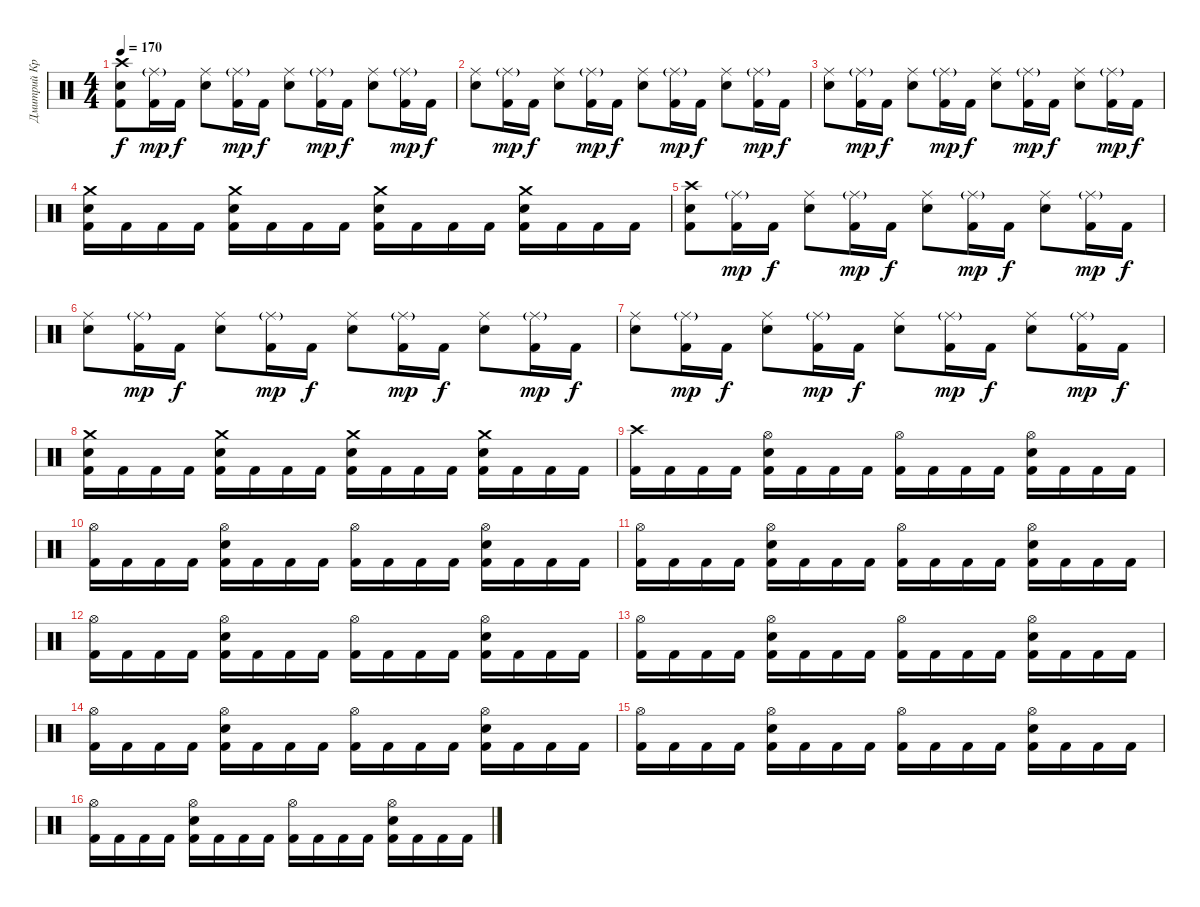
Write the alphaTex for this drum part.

\track ("Дмитрий Кривенков" "Дмитрий Кр") {instrument percussion}
\staff {score}
\articulation defaults
\ts (4 4)
\tempo 170
\clef neutral
\ks c
("Crash high (hit)" "Electric Snare (hit)" "Kick (hit) 2").8{dy f} ("Ride (middle)"{g} "Kick (hit) 2").16{dy mp} "Kick (hit) 2".16{dy f} ("Ride (middle)" "Electric Snare (hit)").8 ("Ride (middle)"{g} "Kick (hit) 2").16{dy mp} "Kick (hit) 2".16{dy f} ("Ride (middle)" "Electric Snare (hit)").8 ("Ride (middle)"{g} "Kick (hit) 2").16{dy mp} "Kick (hit) 2".16{dy f} ("Ride (middle)" "Electric Snare (hit)").8 ("Ride (middle)"{g} "Kick (hit) 2").16{dy mp} "Kick (hit) 2".16{dy f} |
("Ride (middle)" "Electric Snare (hit)").8 ("Ride (middle)"{g} "Kick (hit) 2").16{dy mp} "Kick (hit) 2".16{dy f} ("Ride (middle)" "Electric Snare (hit)").8 ("Ride (middle)"{g} "Kick (hit) 2").16{dy mp} "Kick (hit) 2".16{dy f} ("Ride (middle)" "Electric Snare (hit)").8 ("Ride (middle)"{g} "Kick (hit) 2").16{dy mp} "Kick (hit) 2".16{dy f} ("Ride (middle)" "Electric Snare (hit)").8 ("Ride (middle)"{g} "Kick (hit) 2").16{dy mp} "Kick (hit) 2".16{dy f} |
("Ride (middle)" "Electric Snare (hit)").8 ("Ride (middle)"{g} "Kick (hit) 2").16{dy mp} "Kick (hit) 2".16{dy f} ("Ride (middle)" "Electric Snare (hit)").8 ("Ride (middle)"{g} "Kick (hit) 2").16{dy mp} "Kick (hit) 2".16{dy f} ("Ride (middle)" "Electric Snare (hit)").8 ("Ride (middle)"{g} "Kick (hit) 2").16{dy mp} "Kick (hit) 2".16{dy f} ("Ride (middle)" "Electric Snare (hit)").8 ("Ride (middle)"{g} "Kick (hit) 2").16{dy mp} "Kick (hit) 2".16{dy f} |
("Crash medium (hit)" "Electric Snare (hit)" "Kick (hit) 2").16 "Kick (hit) 2".16 "Kick (hit) 2".16 "Kick (hit) 2".16 ("Crash medium (hit)" "Electric Snare (hit)" "Kick (hit) 2").16 "Kick (hit) 2".16 "Kick (hit) 2".16 "Kick (hit) 2".16 ("Crash medium (hit)" "Electric Snare (hit)" "Kick (hit) 2").16 "Kick (hit) 2".16 "Kick (hit) 2".16 "Kick (hit) 2".16 ("Crash medium (hit)" "Electric Snare (hit)" "Kick (hit) 2").16 "Kick (hit) 2".16 "Kick (hit) 2".16 "Kick (hit) 2".16 |
("Crash high (hit)" "Electric Snare (hit)" "Kick (hit) 2").8 ("Ride (middle)"{g} "Kick (hit) 2").16{dy mp} "Kick (hit) 2".16{dy f} ("Ride (middle)" "Electric Snare (hit)").8 ("Ride (middle)"{g} "Kick (hit) 2").16{dy mp} "Kick (hit) 2".16{dy f} ("Ride (middle)" "Electric Snare (hit)").8 ("Ride (middle)"{g} "Kick (hit) 2").16{dy mp} "Kick (hit) 2".16{dy f} ("Ride (middle)" "Electric Snare (hit)").8 ("Ride (middle)"{g} "Kick (hit) 2").16{dy mp} "Kick (hit) 2".16{dy f} |
("Ride (middle)" "Electric Snare (hit)").8 ("Ride (middle)"{g} "Kick (hit) 2").16{dy mp} "Kick (hit) 2".16{dy f} ("Ride (middle)" "Electric Snare (hit)").8 ("Ride (middle)"{g} "Kick (hit) 2").16{dy mp} "Kick (hit) 2".16{dy f} ("Ride (middle)" "Electric Snare (hit)").8 ("Ride (middle)"{g} "Kick (hit) 2").16{dy mp} "Kick (hit) 2".16{dy f} ("Ride (middle)" "Electric Snare (hit)").8 ("Ride (middle)"{g} "Kick (hit) 2").16{dy mp} "Kick (hit) 2".16{dy f} |
("Ride (middle)" "Electric Snare (hit)").8 ("Ride (middle)"{g} "Kick (hit) 2").16{dy mp} "Kick (hit) 2".16{dy f} ("Ride (middle)" "Electric Snare (hit)").8 ("Ride (middle)"{g} "Kick (hit) 2").16{dy mp} "Kick (hit) 2".16{dy f} ("Ride (middle)" "Electric Snare (hit)").8 ("Ride (middle)"{g} "Kick (hit) 2").16{dy mp} "Kick (hit) 2".16{dy f} ("Ride (middle)" "Electric Snare (hit)").8 ("Ride (middle)"{g} "Kick (hit) 2").16{dy mp} "Kick (hit) 2".16{dy f} |
("Crash medium (hit)" "Electric Snare (hit)" "Kick (hit) 2").16 "Kick (hit) 2".16 "Kick (hit) 2".16 "Kick (hit) 2".16 ("Crash medium (hit)" "Electric Snare (hit)" "Kick (hit) 2").16 "Kick (hit) 2".16 "Kick (hit) 2".16 "Kick (hit) 2".16 ("Crash medium (hit)" "Electric Snare (hit)" "Kick (hit) 2").16 "Kick (hit) 2".16 "Kick (hit) 2".16 "Kick (hit) 2".16 ("Crash medium (hit)" "Electric Snare (hit)" "Kick (hit) 2").16 "Kick (hit) 2".16 "Kick (hit) 2".16 "Kick (hit) 2".16 |
("Crash high (hit)" "Kick (hit) 2").16 "Kick (hit) 2".16 "Kick (hit) 2".16 "Kick (hit) 2".16 ("Hi-Hat (open)" "Electric Snare (hit)" "Kick (hit) 2").16 "Kick (hit) 2".16 "Kick (hit) 2".16 "Kick (hit) 2".16 ("Hi-Hat (open)" "Kick (hit) 2").16 "Kick (hit) 2".16 "Kick (hit) 2".16 "Kick (hit) 2".16 ("Hi-Hat (open)" "Electric Snare (hit)" "Kick (hit) 2").16 "Kick (hit) 2".16 "Kick (hit) 2".16 "Kick (hit) 2".16 |
("Hi-Hat (open)" "Kick (hit) 2").16 "Kick (hit) 2".16 "Kick (hit) 2".16 "Kick (hit) 2".16 ("Hi-Hat (open)" "Electric Snare (hit)" "Kick (hit) 2").16 "Kick (hit) 2".16 "Kick (hit) 2".16 "Kick (hit) 2".16 ("Hi-Hat (open)" "Kick (hit) 2").16 "Kick (hit) 2".16 "Kick (hit) 2".16 "Kick (hit) 2".16 ("Hi-Hat (open)" "Electric Snare (hit)" "Kick (hit) 2").16 "Kick (hit) 2".16 "Kick (hit) 2".16 "Kick (hit) 2".16 |
("Hi-Hat (open)" "Kick (hit) 2").16 "Kick (hit) 2".16 "Kick (hit) 2".16 "Kick (hit) 2".16 ("Hi-Hat (open)" "Electric Snare (hit)" "Kick (hit) 2").16 "Kick (hit) 2".16 "Kick (hit) 2".16 "Kick (hit) 2".16 ("Hi-Hat (open)" "Kick (hit) 2").16 "Kick (hit) 2".16 "Kick (hit) 2".16 "Kick (hit) 2".16 ("Hi-Hat (open)" "Electric Snare (hit)" "Kick (hit) 2").16 "Kick (hit) 2".16 "Kick (hit) 2".16 "Kick (hit) 2".16 |
("Hi-Hat (open)" "Kick (hit) 2").16 "Kick (hit) 2".16 "Kick (hit) 2".16 "Kick (hit) 2".16 ("Hi-Hat (open)" "Electric Snare (hit)" "Kick (hit) 2").16 "Kick (hit) 2".16 "Kick (hit) 2".16 "Kick (hit) 2".16 ("Hi-Hat (open)" "Kick (hit) 2").16 "Kick (hit) 2".16 "Kick (hit) 2".16 "Kick (hit) 2".16 ("Hi-Hat (open)" "Electric Snare (hit)" "Kick (hit) 2").16 "Kick (hit) 2".16 "Kick (hit) 2".16 "Kick (hit) 2".16 |
("Hi-Hat (open)" "Kick (hit) 2").16 "Kick (hit) 2".16 "Kick (hit) 2".16 "Kick (hit) 2".16 ("Hi-Hat (open)" "Electric Snare (hit)" "Kick (hit) 2").16 "Kick (hit) 2".16 "Kick (hit) 2".16 "Kick (hit) 2".16 ("Hi-Hat (open)" "Kick (hit) 2").16 "Kick (hit) 2".16 "Kick (hit) 2".16 "Kick (hit) 2".16 ("Hi-Hat (open)" "Electric Snare (hit)" "Kick (hit) 2").16 "Kick (hit) 2".16 "Kick (hit) 2".16 "Kick (hit) 2".16 |
("Hi-Hat (open)" "Kick (hit) 2").16 "Kick (hit) 2".16 "Kick (hit) 2".16 "Kick (hit) 2".16 ("Hi-Hat (open)" "Electric Snare (hit)" "Kick (hit) 2").16 "Kick (hit) 2".16 "Kick (hit) 2".16 "Kick (hit) 2".16 ("Hi-Hat (open)" "Kick (hit) 2").16 "Kick (hit) 2".16 "Kick (hit) 2".16 "Kick (hit) 2".16 ("Hi-Hat (open)" "Electric Snare (hit)" "Kick (hit) 2").16 "Kick (hit) 2".16 "Kick (hit) 2".16 "Kick (hit) 2".16 |
("Hi-Hat (open)" "Kick (hit) 2").16 "Kick (hit) 2".16 "Kick (hit) 2".16 "Kick (hit) 2".16 ("Hi-Hat (open)" "Electric Snare (hit)" "Kick (hit) 2").16 "Kick (hit) 2".16 "Kick (hit) 2".16 "Kick (hit) 2".16 ("Hi-Hat (open)" "Kick (hit) 2").16 "Kick (hit) 2".16 "Kick (hit) 2".16 "Kick (hit) 2".16 ("Hi-Hat (open)" "Electric Snare (hit)" "Kick (hit) 2").16 "Kick (hit) 2".16 "Kick (hit) 2".16 "Kick (hit) 2".16 |
("Hi-Hat (open)" "Kick (hit) 2").16 "Kick (hit) 2".16 "Kick (hit) 2".16 "Kick (hit) 2".16 ("Hi-Hat (open)" "Electric Snare (hit)" "Kick (hit) 2").16 "Kick (hit) 2".16 "Kick (hit) 2".16 "Kick (hit) 2".16 ("Hi-Hat (open)" "Kick (hit) 2").16 "Kick (hit) 2".16 "Kick (hit) 2".16 "Kick (hit) 2".16 ("Hi-Hat (open)" "Electric Snare (hit)" "Kick (hit) 2").16 "Kick (hit) 2".16 "Kick (hit) 2".16 "Kick (hit) 2".16
